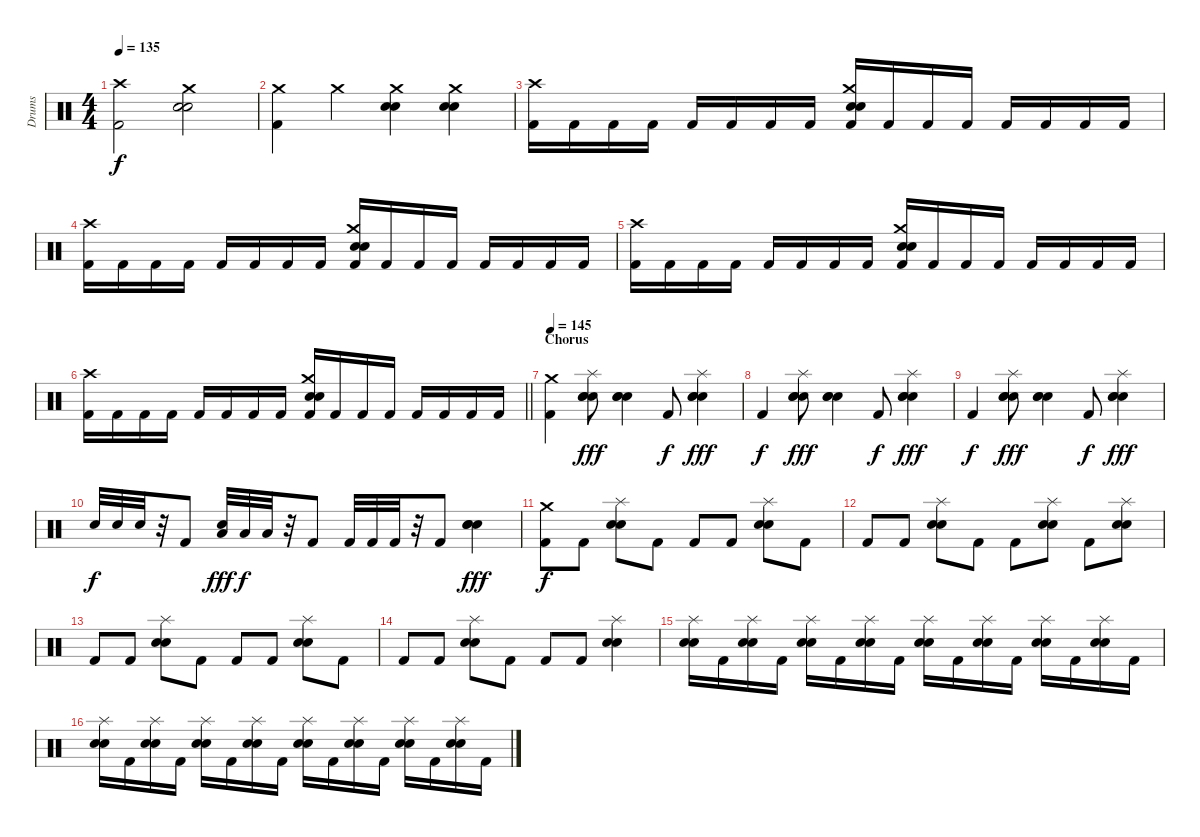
\track ("Drums" "Drums") {instrument percussion}
\staff {score}
\articulation defaults
\ts (4 4)
\tempo 135
\clef neutral
\ks c
("Crash high (hit)" "Kick (hit) 2").2{dy f} ("Crash medium (hit)" "Electric Snare (hit)" "Snare (hit) 2").2 |
("Crash medium (hit)" "Kick (hit) 2").4 "Crash medium (hit)".4 ("Crash medium (hit)" "Electric Snare (hit)" "Snare (hit) 2").4 ("Crash medium (hit)" "Electric Snare (hit)" "Snare (hit) 2").4 |
("Crash high (hit)" "Kick (hit) 2").16 "Kick (hit) 2".16 "Kick (hit) 2".16 "Kick (hit) 2".16 "Kick (hit) 2".16 "Kick (hit) 2".16 "Kick (hit) 2".16 "Kick (hit) 2".16 ("Crash medium (hit)" "Electric Snare (hit)" "Snare (hit) 2" "Kick (hit) 2").16 "Kick (hit) 2".16 "Kick (hit) 2".16 "Kick (hit) 2".16 "Kick (hit) 2".16 "Kick (hit) 2".16 "Kick (hit) 2".16 "Kick (hit) 2".16 |
("Crash high (hit)" "Kick (hit) 2").16 "Kick (hit) 2".16 "Kick (hit) 2".16 "Kick (hit) 2".16 "Kick (hit) 2".16 "Kick (hit) 2".16 "Kick (hit) 2".16 "Kick (hit) 2".16 ("Crash medium (hit)" "Electric Snare (hit)" "Snare (hit) 2" "Kick (hit) 2").16 "Kick (hit) 2".16 "Kick (hit) 2".16 "Kick (hit) 2".16 "Kick (hit) 2".16 "Kick (hit) 2".16 "Kick (hit) 2".16 "Kick (hit) 2".16 |
("Crash high (hit)" "Kick (hit) 2").16 "Kick (hit) 2".16 "Kick (hit) 2".16 "Kick (hit) 2".16 "Kick (hit) 2".16 "Kick (hit) 2".16 "Kick (hit) 2".16 "Kick (hit) 2".16 ("Crash medium (hit)" "Electric Snare (hit)" "Snare (hit) 2" "Kick (hit) 2").16 "Kick (hit) 2".16 "Kick (hit) 2".16 "Kick (hit) 2".16 "Kick (hit) 2".16 "Kick (hit) 2".16 "Kick (hit) 2".16 "Kick (hit) 2".16 |
\barLineRight lightlight
("Crash high (hit)" "Kick (hit) 2").16 "Kick (hit) 2".16 "Kick (hit) 2".16 "Kick (hit) 2".16 "Kick (hit) 2".16 "Kick (hit) 2".16 "Kick (hit) 2".16 "Kick (hit) 2".16 ("Crash medium (hit)" "Electric Snare (hit)" "Snare (hit) 2" "Kick (hit) 2").16 "Kick (hit) 2".16 "Kick (hit) 2".16 "Kick (hit) 2".16 "Kick (hit) 2".16 "Kick (hit) 2".16 "Kick (hit) 2".16 "Kick (hit) 2".16 |
\section ("" "Chorus")
\tempo 145
("Crash medium (hit)" "Kick (hit) 2").4 ("Splash (hit)" "Hand Clap (hit)" "Electric Snare (hit)" "Snare (hit) 2").8{dy fff} ("Hand Clap (hit)" "Electric Snare (hit)" "Snare (hit) 2").4 "Kick (hit) 2".8{dy f} ("Splash (hit)" "Hand Clap (hit)" "Electric Snare (hit)" "Snare (hit) 2").4{dy fff} |
"Kick (hit) 2".4{dy f} ("Splash (hit)" "Hand Clap (hit)" "Electric Snare (hit)" "Snare (hit) 2").8{dy fff} ("Hand Clap (hit)" "Electric Snare (hit)" "Snare (hit) 2").4 "Kick (hit) 2".8{dy f} ("Splash (hit)" "Hand Clap (hit)" "Electric Snare (hit)" "Snare (hit) 2").4{dy fff} |
"Kick (hit) 2".4{dy f} ("Splash (hit)" "Hand Clap (hit)" "Electric Snare (hit)" "Snare (hit) 2").8{dy fff} ("Hand Clap (hit)" "Electric Snare (hit)" "Snare (hit) 2").4 "Kick (hit) 2".8{dy f} ("Splash (hit)" "Hand Clap (hit)" "Electric Snare (hit)" "Snare (hit) 2").4{dy fff} |
"Electric Snare (hit)".32{dy f} "Electric Snare (hit)".32 "Electric Snare (hit)".32 r.32 "Kick (hit) 2".8 ("Hand Clap (hit)" "Low Tom (hit)").32{dy fff} "Low Tom (hit)".32{dy f} "Low Tom (hit)".32 r.32 "Kick (hit) 2".8 "Kick (hit) 2".32 "Kick (hit) 2".32 "Kick (hit) 2".32 r.32 "Kick (hit) 2".8 ("Hand Clap (hit)" "Electric Snare (hit)" "Snare (hit) 2").4{dy fff} |
("Crash medium (hit)" "Kick (hit) 2").8{dy f} "Kick (hit) 2".8 ("Splash (hit)" "Electric Snare (hit)" "Snare (hit) 2").8 "Kick (hit) 2".8 "Kick (hit) 2".8 "Kick (hit) 2".8 ("Splash (hit)" "Electric Snare (hit)" "Snare (hit) 2").8 "Kick (hit) 2".8 |
"Kick (hit) 2".8 "Kick (hit) 2".8 ("Splash (hit)" "Electric Snare (hit)" "Snare (hit) 2").8 "Kick (hit) 2".8 "Kick (hit) 2".8 ("Splash (hit)" "Electric Snare (hit)" "Snare (hit) 2").8 "Kick (hit) 2".8 ("Splash (hit)" "Electric Snare (hit)" "Snare (hit) 2").8 |
"Kick (hit) 2".8 "Kick (hit) 2".8 ("Splash (hit)" "Electric Snare (hit)" "Snare (hit) 2").8 "Kick (hit) 2".8 "Kick (hit) 2".8 "Kick (hit) 2".8 ("Splash (hit)" "Electric Snare (hit)" "Snare (hit) 2").8 "Kick (hit) 2".8 |
"Kick (hit) 2".8 "Kick (hit) 2".8 ("Splash (hit)" "Electric Snare (hit)" "Snare (hit) 2").8 "Kick (hit) 2".8 "Kick (hit) 2".8 "Kick (hit) 2".8 ("Splash (hit)" "Electric Snare (hit)" "Snare (hit) 2").4 |
("Splash (hit)" "Electric Snare (hit)" "Snare (hit) 2").16 "Kick (hit) 2".16 ("Splash (hit)" "Electric Snare (hit)" "Snare (hit) 2").16 "Kick (hit) 2".16 ("Splash (hit)" "Electric Snare (hit)" "Snare (hit) 2").16 "Kick (hit) 2".16 ("Splash (hit)" "Electric Snare (hit)" "Snare (hit) 2").16 "Kick (hit) 2".16 ("Splash (hit)" "Electric Snare (hit)" "Snare (hit) 2").16 "Kick (hit) 2".16 ("Splash (hit)" "Electric Snare (hit)" "Snare (hit) 2").16 "Kick (hit) 2".16 ("Splash (hit)" "Electric Snare (hit)" "Snare (hit) 2").16 "Kick (hit) 2".16 ("Splash (hit)" "Electric Snare (hit)" "Snare (hit) 2").16 "Kick (hit) 2".16 |
("Splash (hit)" "Electric Snare (hit)" "Snare (hit) 2").16 "Kick (hit) 2".16 ("Splash (hit)" "Electric Snare (hit)" "Snare (hit) 2").16 "Kick (hit) 2".16 ("Splash (hit)" "Electric Snare (hit)" "Snare (hit) 2").16 "Kick (hit) 2".16 ("Splash (hit)" "Electric Snare (hit)" "Snare (hit) 2").16 "Kick (hit) 2".16 ("Splash (hit)" "Electric Snare (hit)" "Snare (hit) 2").16 "Kick (hit) 2".16 ("Splash (hit)" "Electric Snare (hit)" "Snare (hit) 2").16 "Kick (hit) 2".16 ("Splash (hit)" "Electric Snare (hit)" "Snare (hit) 2").16 "Kick (hit) 2".16 ("Splash (hit)" "Electric Snare (hit)" "Snare (hit) 2").16 "Kick (hit) 2".16
